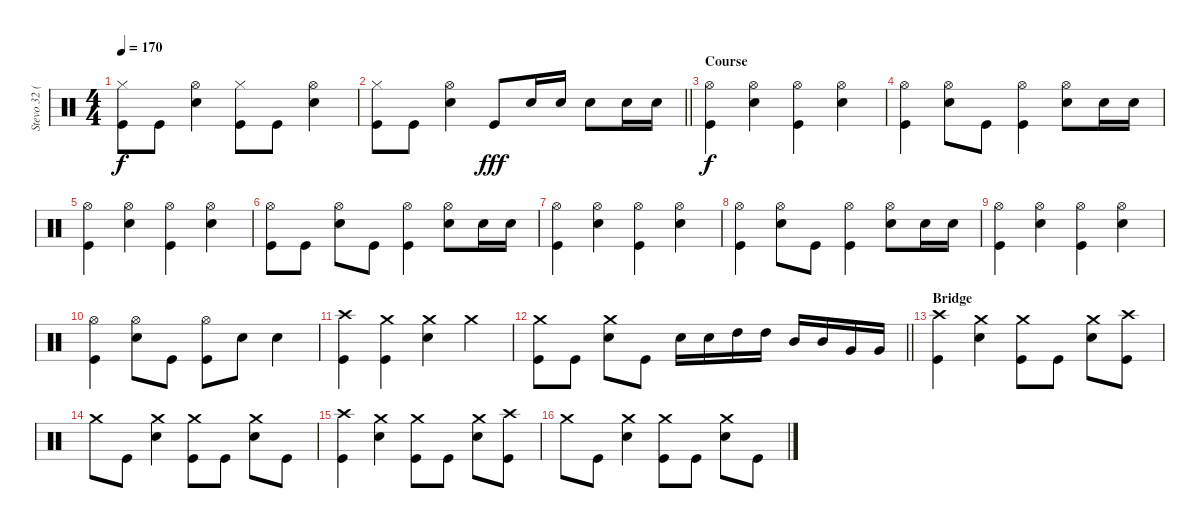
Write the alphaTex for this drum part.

\track ("Stevo 32 (Drums)" "Stevo 32 (") {instrument percussion}
\staff {score}
\articulation defaults
\ts (4 4)
\tempo 170
\clef neutral
\ks c
("Hi-Hat (closed)" "Kick (hit)").8{dy f} "Kick (hit)".8 ("Hi-Hat (open)" "Electric Snare (hit)").4 ("Hi-Hat (closed)" "Kick (hit)").8 "Kick (hit)".8 ("Hi-Hat (open)" "Electric Snare (hit)").4 |
\barLineRight lightlight
("Hi-Hat (closed)" "Kick (hit)").8 "Kick (hit)".8 ("Hi-Hat (open)" "Electric Snare (hit)").4 "Kick (hit)".8{dy fff} "Electric Snare (hit)".16 "Electric Snare (hit)".16 "Electric Snare (hit)".8 "Electric Snare (hit)".16 "Electric Snare (hit)".16 |
\section ("" "Course")
("Hi-Hat (open)" "Kick (hit)").4{dy f} ("Hi-Hat (open)" "Electric Snare (hit)").4 ("Hi-Hat (open)" "Kick (hit)").4 ("Hi-Hat (open)" "Electric Snare (hit)").4 |
("Hi-Hat (open)" "Kick (hit)").4 ("Hi-Hat (open)" "Electric Snare (hit)").8 "Kick (hit)".8 ("Hi-Hat (open)" "Kick (hit)").4 ("Hi-Hat (open)" "Electric Snare (hit)").8 "Electric Snare (hit)".16 "Electric Snare (hit)".16 |
("Hi-Hat (open)" "Kick (hit)").4 ("Hi-Hat (open)" "Electric Snare (hit)").4 ("Hi-Hat (open)" "Kick (hit)").4 ("Hi-Hat (open)" "Electric Snare (hit)").4 |
("Hi-Hat (open)" "Kick (hit)").8 "Kick (hit)".8 ("Hi-Hat (open)" "Electric Snare (hit)").8 "Kick (hit)".8 ("Hi-Hat (open)" "Kick (hit)").4 ("Hi-Hat (open)" "Electric Snare (hit)").8 "Electric Snare (hit)".16 "Electric Snare (hit)".16 |
("Hi-Hat (open)" "Kick (hit)").4 ("Hi-Hat (open)" "Electric Snare (hit)").4 ("Hi-Hat (open)" "Kick (hit)").4 ("Hi-Hat (open)" "Electric Snare (hit)").4 |
("Hi-Hat (open)" "Kick (hit)").4 ("Hi-Hat (open)" "Electric Snare (hit)").8 "Kick (hit)".8 ("Hi-Hat (open)" "Kick (hit)").4 ("Hi-Hat (open)" "Electric Snare (hit)").8 "Electric Snare (hit)".16 "Electric Snare (hit)".16 |
("Hi-Hat (open)" "Kick (hit)").4 ("Hi-Hat (open)" "Electric Snare (hit)").4 ("Hi-Hat (open)" "Kick (hit)").4 ("Hi-Hat (open)" "Electric Snare (hit)").4 |
("Hi-Hat (open)" "Kick (hit)").4 ("Hi-Hat (open)" "Electric Snare (hit)").8 "Kick (hit)".8 ("Hi-Hat (open)" "Kick (hit)").8 "Electric Snare (hit)".8 "Electric Snare (hit)".4 |
("Crash high (hit)" "Kick (hit)").4 ("Crash medium (hit)" "Kick (hit)").4 ("Crash medium (hit)" "Electric Snare (hit)").4 "Crash medium (hit)".4 |
\barLineRight lightlight
("Crash medium (hit)" "Kick (hit)").8 "Kick (hit)".8 ("Crash medium (hit)" "Electric Snare (hit)").8 "Kick (hit)".8 "Electric Snare (hit)".16 "Electric Snare (hit)".16 "High Tom (hit)".16 "High Tom (hit)".16 "Mid Tom (hit)".16 "Mid Tom (hit)".16 "Very Low Tom (hit)".16 "Very Low Tom (hit)".16 |
\section ("" "Bridge")
("Crash high (hit)" "Kick (hit)").4 ("Crash medium (hit)" "Electric Snare (hit)").4 ("Crash medium (hit)" "Kick (hit)").8 "Kick (hit)".8 ("Crash medium (hit)" "Electric Snare (hit)").8 ("Crash high (hit)" "Kick (hit)").8 |
"Crash medium (hit)".8 "Kick (hit)".8 ("Crash medium (hit)" "Electric Snare (hit)").4 ("Crash medium (hit)" "Kick (hit)").8 "Kick (hit)".8 ("Crash medium (hit)" "Electric Snare (hit)").8 "Kick (hit)".8 |
("Crash high (hit)" "Kick (hit)").4 ("Crash medium (hit)" "Electric Snare (hit)").4 ("Crash medium (hit)" "Kick (hit)").8 "Kick (hit)".8 ("Crash medium (hit)" "Electric Snare (hit)").8 ("Crash high (hit)" "Kick (hit)").8 |
"Crash medium (hit)".8 "Kick (hit)".8 ("Crash medium (hit)" "Electric Snare (hit)").4 ("Crash medium (hit)" "Kick (hit)").8 "Kick (hit)".8 ("Crash medium (hit)" "Electric Snare (hit)").8 "Kick (hit)".8
